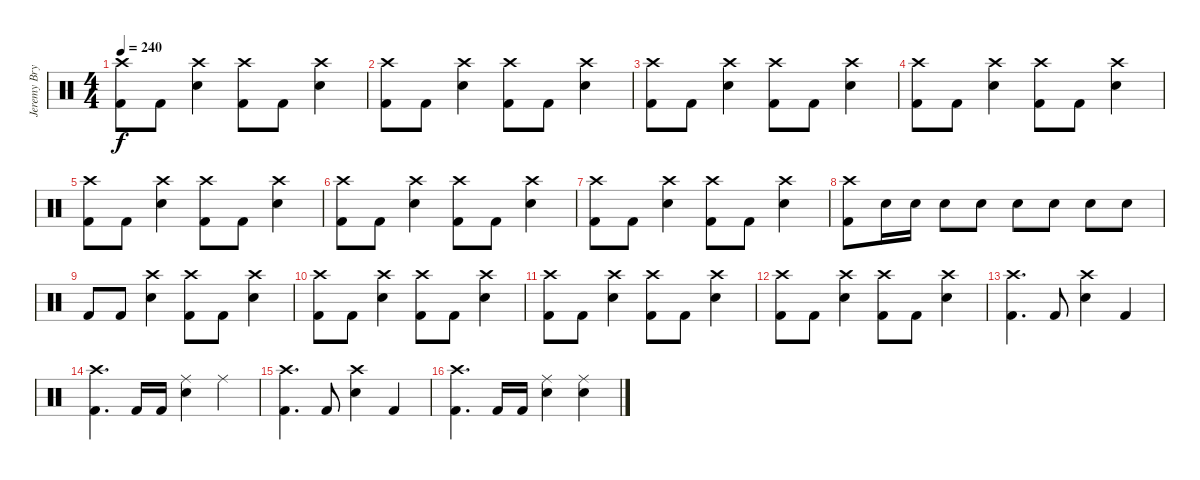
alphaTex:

\track ("Jeremy Bryan - Drums" "Jeremy Bry") {instrument percussion}
\staff {score}
\articulation defaults
\ts (4 4)
\tempo 240
\clef neutral
\ks c
("Crash high (hit)" "Kick (hit) 2").8{dy f} "Kick (hit) 2".8 ("Crash high (hit)" "Electric Snare (hit)").4 ("Crash high (hit)" "Kick (hit) 2").8 "Kick (hit) 2".8 ("Crash high (hit)" "Electric Snare (hit)").4 |
("Crash high (hit)" "Kick (hit) 2").8 "Kick (hit) 2".8 ("Crash high (hit)" "Electric Snare (hit)").4 ("Crash high (hit)" "Kick (hit) 2").8 "Kick (hit) 2".8 ("Crash high (hit)" "Electric Snare (hit)").4 |
("Crash high (hit)" "Kick (hit) 2").8 "Kick (hit) 2".8 ("Crash high (hit)" "Electric Snare (hit)").4 ("Crash high (hit)" "Kick (hit) 2").8 "Kick (hit) 2".8 ("Crash high (hit)" "Electric Snare (hit)").4 |
("Crash high (hit)" "Kick (hit) 2").8 "Kick (hit) 2".8 ("Crash high (hit)" "Electric Snare (hit)").4 ("Crash high (hit)" "Kick (hit) 2").8 "Kick (hit) 2".8 ("Crash high (hit)" "Electric Snare (hit)").4 |
("Crash high (hit)" "Kick (hit) 2").8 "Kick (hit) 2".8 ("Crash high (hit)" "Electric Snare (hit)").4 ("Crash high (hit)" "Kick (hit) 2").8 "Kick (hit) 2".8 ("Crash high (hit)" "Electric Snare (hit)").4 |
("Crash high (hit)" "Kick (hit) 2").8 "Kick (hit) 2".8 ("Crash high (hit)" "Electric Snare (hit)").4 ("Crash high (hit)" "Kick (hit) 2").8 "Kick (hit) 2".8 ("Crash high (hit)" "Electric Snare (hit)").4 |
("Crash high (hit)" "Kick (hit) 2").8 "Kick (hit) 2".8 ("Crash high (hit)" "Electric Snare (hit)").4 ("Crash high (hit)" "Kick (hit) 2").8 "Kick (hit) 2".8 ("Crash high (hit)" "Electric Snare (hit)").4 |
("Crash high (hit)" "Kick (hit) 2").8 "Electric Snare (hit)".16 "Electric Snare (hit)".16 "Electric Snare (hit)".8 "Electric Snare (hit)".8 "Electric Snare (hit)".8 "Electric Snare (hit)".8 "Electric Snare (hit)".8 "Electric Snare (hit)".8 |
"Kick (hit) 2".8 "Kick (hit) 2".8 ("Crash high (hit)" "Electric Snare (hit)").4 ("Crash high (hit)" "Kick (hit) 2").8 "Kick (hit) 2".8 ("Crash high (hit)" "Electric Snare (hit)").4 |
("Crash high (hit)" "Kick (hit) 2").8 "Kick (hit) 2".8 ("Crash high (hit)" "Electric Snare (hit)").4 ("Crash high (hit)" "Kick (hit) 2").8 "Kick (hit) 2".8 ("Crash high (hit)" "Electric Snare (hit)").4 |
("Crash high (hit)" "Kick (hit) 2").8 "Kick (hit) 2".8 ("Crash high (hit)" "Electric Snare (hit)").4 ("Crash high (hit)" "Kick (hit) 2").8 "Kick (hit) 2".8 ("Crash high (hit)" "Electric Snare (hit)").4 |
("Crash high (hit)" "Kick (hit) 2").8 "Kick (hit) 2".8 ("Crash high (hit)" "Electric Snare (hit)").4 ("Crash high (hit)" "Kick (hit) 2").8 "Kick (hit) 2".8 ("Crash high (hit)" "Electric Snare (hit)").4 |
("Crash high (hit)" "Kick (hit) 2").4{d} "Kick (hit) 2".8 ("Crash high (hit)" "Electric Snare (hit)").4 "Kick (hit) 2".4 |
("Crash high (hit)" "Kick (hit) 2").4{d} "Kick (hit) 2".16 "Kick (hit) 2".16 ("Ride (middle)" "Electric Snare (hit)").4 "Ride (middle)".4 |
("Crash high (hit)" "Kick (hit) 2").4{d} "Kick (hit) 2".8 ("Crash high (hit)" "Electric Snare (hit)").4 "Kick (hit) 2".4 |
("Crash high (hit)" "Kick (hit) 2").4{d} "Kick (hit) 2".16 "Kick (hit) 2".16 ("Ride (middle)" "Electric Snare (hit)").4 ("Ride (middle)" "Electric Snare (hit)").4
